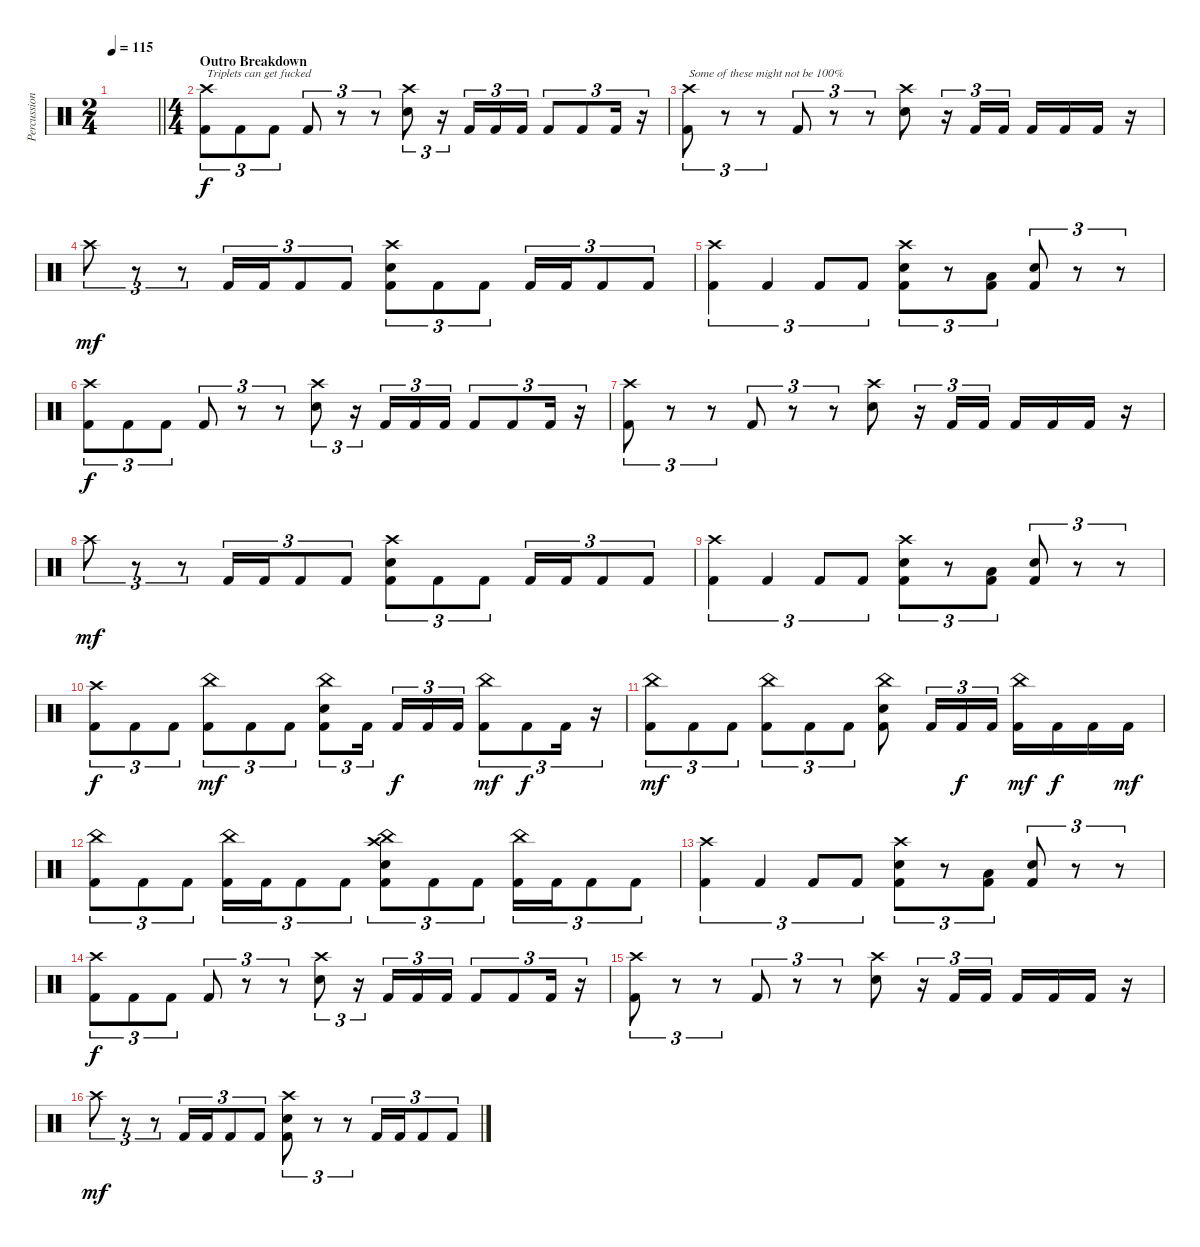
\track ("Percussion" "Percussion") {instrument percussion}
\staff {score}
\articulation defaults
\ts (2 4)
\tempo 115
\clef neutral
\barLineRight lightlight
\ks c
|
\ts (4 4)
\section ("" "Outro Breakdown")
("Crash high (hit)" "Kick (hit) 2").8{tu (3 2) txt "Triplets can get fucked" dy f} "Kick (hit) 2".8{tu (3 2)} "Kick (hit) 2".8{tu (3 2)} "Kick (hit) 2".8{tu (3 2)} r.8{tu (3 2)} r.8{tu (3 2)} ("Crash high (hit)" "Electric Snare (hit)").8{tu (3 2)} r.16{tu (3 2)} "Kick (hit) 2".16{tu (3 2)} "Kick (hit) 2".16{tu (3 2)} "Kick (hit) 2".16{tu (3 2)} "Kick (hit) 2".8{tu (3 2)} "Kick (hit) 2".8{tu (3 2)} "Kick (hit) 2".16{tu (3 2)} r.16{tu (3 2)} |
("Crash high (hit)" "Kick (hit) 2").8{tu (3 2) txt "Some of these might not be 100% "} r.8{tu (3 2)} r.8{tu (3 2)} "Kick (hit) 2".8{tu (3 2)} r.8{tu (3 2)} r.8{tu (3 2)} ("Crash high (hit)" "Electric Snare (hit)").8 r.16{tu (3 2)} "Kick (hit) 2".16{tu (3 2)} "Kick (hit) 2".16{tu (3 2)} "Kick (hit) 2".16 "Kick (hit) 2".16 "Kick (hit) 2".16 r.16 |
"Crash high (hit)".8{tu (3 2) dy mf} r.8{tu (3 2)} r.8{tu (3 2)} "Kick (hit) 2".16{tu (3 2)} "Kick (hit) 2".16{tu (3 2)} "Kick (hit) 2".8{tu (3 2)} "Kick (hit) 2".8{tu (3 2)} ("Crash high (hit)" "Electric Snare (hit)" "Kick (hit) 2").8{tu (3 2)} "Kick (hit) 2".8{tu (3 2)} "Kick (hit) 2".8{tu (3 2)} "Kick (hit) 2".16{tu (3 2)} "Kick (hit) 2".16{tu (3 2)} "Kick (hit) 2".8{tu (3 2)} "Kick (hit) 2".8{tu (3 2)} |
("Crash high (hit)" "Kick (hit) 2").4{tu (3 2)} "Kick (hit) 2".4{tu (3 2)} "Kick (hit) 2".8{tu (3 2)} "Kick (hit) 2".8{tu (3 2)} ("Crash high (hit)" "Electric Snare (hit)" "Kick (hit) 2").8{tu (3 2)} r.8{tu (3 2)} ("Low Tom (hit)" "Kick (hit) 2").8{tu (3 2)} ("Electric Snare (hit)" "Kick (hit) 2").8{tu (3 2)} r.8{tu (3 2)} r.8{tu (3 2)} |
("Crash high (hit)" "Kick (hit) 2").8{tu (3 2) dy f} "Kick (hit) 2".8{tu (3 2)} "Kick (hit) 2".8{tu (3 2)} "Kick (hit) 2".8{tu (3 2)} r.8{tu (3 2)} r.8{tu (3 2)} ("Crash high (hit)" "Electric Snare (hit)").8{tu (3 2)} r.16{tu (3 2)} "Kick (hit) 2".16{tu (3 2)} "Kick (hit) 2".16{tu (3 2)} "Kick (hit) 2".16{tu (3 2)} "Kick (hit) 2".8{tu (3 2)} "Kick (hit) 2".8{tu (3 2)} "Kick (hit) 2".16{tu (3 2)} r.16{tu (3 2)} |
("Crash high (hit)" "Kick (hit) 2").8{tu (3 2)} r.8{tu (3 2)} r.8{tu (3 2)} "Kick (hit) 2".8{tu (3 2)} r.8{tu (3 2)} r.8{tu (3 2)} ("Crash high (hit)" "Electric Snare (hit)").8 r.16{tu (3 2)} "Kick (hit) 2".16{tu (3 2)} "Kick (hit) 2".16{tu (3 2)} "Kick (hit) 2".16 "Kick (hit) 2".16 "Kick (hit) 2".16 r.16 |
"Crash high (hit)".8{tu (3 2) dy mf} r.8{tu (3 2)} r.8{tu (3 2)} "Kick (hit) 2".16{tu (3 2)} "Kick (hit) 2".16{tu (3 2)} "Kick (hit) 2".8{tu (3 2)} "Kick (hit) 2".8{tu (3 2)} ("Crash high (hit)" "Electric Snare (hit)" "Kick (hit) 2").8{tu (3 2)} "Kick (hit) 2".8{tu (3 2)} "Kick (hit) 2".8{tu (3 2)} "Kick (hit) 2".16{tu (3 2)} "Kick (hit) 2".16{tu (3 2)} "Kick (hit) 2".8{tu (3 2)} "Kick (hit) 2".8{tu (3 2)} |
("Crash high (hit)" "Kick (hit) 2").4{tu (3 2)} "Kick (hit) 2".4{tu (3 2)} "Kick (hit) 2".8{tu (3 2)} "Kick (hit) 2".8{tu (3 2)} ("Crash high (hit)" "Electric Snare (hit)" "Kick (hit) 2").8{tu (3 2)} r.8{tu (3 2)} ("Low Tom (hit)" "Kick (hit) 2").8{tu (3 2)} ("Electric Snare (hit)" "Kick (hit) 2").8{tu (3 2)} r.8{tu (3 2)} r.8{tu (3 2)} |
("Crash high (hit)" "Kick (hit) 2").8{tu (3 2) dy f} "Kick (hit) 2".8{tu (3 2)} "Kick (hit) 2".8{tu (3 2)} ("China (hit)" "Kick (hit) 2").8{tu (3 2) dy mf} "Kick (hit) 2".8{tu (3 2)} "Kick (hit) 2".8{tu (3 2)} ("China (hit)" "Electric Snare (hit)" "Kick (hit) 2").8{tu (3 2)} "Kick (hit) 2".16{tu (3 2) beam splitsecondary} "Kick (hit) 2".16{tu (3 2) dy f} "Kick (hit) 2".16{tu (3 2)} "Kick (hit) 2".16{tu (3 2)} ("China (hit)" "Kick (hit) 2").8{tu (3 2) dy mf} "Kick (hit) 2".8{tu (3 2) dy f} "Kick (hit) 2".16{tu (3 2)} r.16{tu (3 2)} |
("China (hit)" "Kick (hit) 2").8{tu (3 2) dy mf} "Kick (hit) 2".8{tu (3 2)} "Kick (hit) 2".8{tu (3 2)} ("China (hit)" "Kick (hit) 2").8{tu (3 2)} "Kick (hit) 2".8{tu (3 2)} "Kick (hit) 2".8{tu (3 2)} ("China (hit)" "Electric Snare (hit)" "Kick (hit) 2").8 "Kick (hit) 2".16{tu (3 2)} "Kick (hit) 2".16{tu (3 2) dy f} "Kick (hit) 2".16{tu (3 2)} ("China (hit)" "Kick (hit) 2").16{dy mf} "Kick (hit) 2".16{dy f} "Kick (hit) 2".16 "Kick (hit) 2".16{dy mf} |
("China (hit)" "Kick (hit) 2").8{tu (3 2)} "Kick (hit) 2".8{tu (3 2)} "Kick (hit) 2".8{tu (3 2)} ("China (hit)" "Kick (hit) 2").16{tu (3 2)} "Kick (hit) 2".16{tu (3 2)} "Kick (hit) 2".8{tu (3 2)} "Kick (hit) 2".8{tu (3 2)} ("Crash high (hit)" "China (hit)" "Electric Snare (hit)" "Kick (hit) 2").8{tu (3 2)} "Kick (hit) 2".8{tu (3 2)} "Kick (hit) 2".8{tu (3 2)} ("China (hit)" "Kick (hit) 2").16{tu (3 2)} "Kick (hit) 2".16{tu (3 2)} "Kick (hit) 2".8{tu (3 2)} "Kick (hit) 2".8{tu (3 2)} |
("Crash high (hit)" "Kick (hit) 2").4{tu (3 2)} "Kick (hit) 2".4{tu (3 2)} "Kick (hit) 2".8{tu (3 2)} "Kick (hit) 2".8{tu (3 2)} ("Crash high (hit)" "Electric Snare (hit)" "Kick (hit) 2").8{tu (3 2)} r.8{tu (3 2)} ("Low Tom (hit)" "Kick (hit) 2").8{tu (3 2)} ("Electric Snare (hit)" "Kick (hit) 2").8{tu (3 2)} r.8{tu (3 2)} r.8{tu (3 2)} |
("Crash high (hit)" "Kick (hit) 2").8{tu (3 2) dy f} "Kick (hit) 2".8{tu (3 2)} "Kick (hit) 2".8{tu (3 2)} "Kick (hit) 2".8{tu (3 2)} r.8{tu (3 2)} r.8{tu (3 2)} ("Crash high (hit)" "Electric Snare (hit)").8{tu (3 2)} r.16{tu (3 2)} "Kick (hit) 2".16{tu (3 2)} "Kick (hit) 2".16{tu (3 2)} "Kick (hit) 2".16{tu (3 2)} "Kick (hit) 2".8{tu (3 2)} "Kick (hit) 2".8{tu (3 2)} "Kick (hit) 2".16{tu (3 2)} r.16{tu (3 2)} |
("Crash high (hit)" "Kick (hit) 2").8{tu (3 2)} r.8{tu (3 2)} r.8{tu (3 2)} "Kick (hit) 2".8{tu (3 2)} r.8{tu (3 2)} r.8{tu (3 2)} ("Crash high (hit)" "Electric Snare (hit)").8 r.16{tu (3 2)} "Kick (hit) 2".16{tu (3 2)} "Kick (hit) 2".16{tu (3 2)} "Kick (hit) 2".16 "Kick (hit) 2".16 "Kick (hit) 2".16 r.16 |
"Crash high (hit)".8{tu (3 2) dy mf} r.8{tu (3 2)} r.8{tu (3 2)} "Kick (hit) 2".16{tu (3 2)} "Kick (hit) 2".16{tu (3 2)} "Kick (hit) 2".8{tu (3 2)} "Kick (hit) 2".8{tu (3 2)} ("Crash high (hit)" "Electric Snare (hit)" "Kick (hit) 2").8{tu (3 2)} r.8{tu (3 2)} r.8{tu (3 2)} "Kick (hit) 2".16{tu (3 2)} "Kick (hit) 2".16{tu (3 2)} "Kick (hit) 2".8{tu (3 2)} "Kick (hit) 2".8{tu (3 2)}
